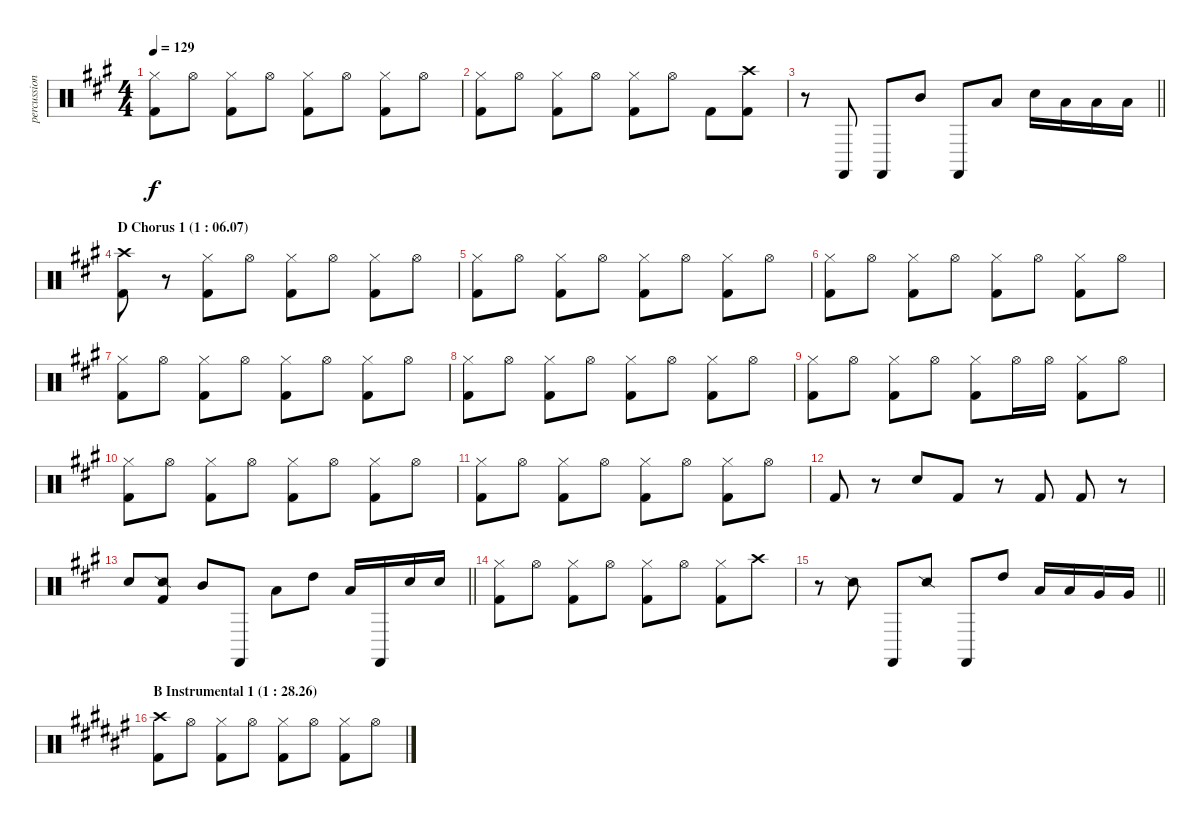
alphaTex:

\track ("percussion" "percussion") {instrument percussion}
\staff {score}
\articulation defaults
\ts (4 4)
\tempo 129
\clef neutral
\ks a
("Hi-Hat (closed)" "Kick (hit) 2").8{dy f} "Hi-Hat (open)".8 ("Hi-Hat (closed)" "Kick (hit) 2").8 "Hi-Hat (open)".8 ("Hi-Hat (closed)" "Kick (hit) 2").8 "Hi-Hat (open)".8 ("Hi-Hat (closed)" "Kick (hit) 2").8 "Hi-Hat (open)".8 |
("Hi-Hat (closed)" "Kick (hit) 2").8 "Hi-Hat (open)".8 ("Hi-Hat (closed)" "Kick (hit) 2").8 "Hi-Hat (open)".8 ("Hi-Hat (closed)" "Kick (hit) 2").8 "Hi-Hat (open)".8 "Kick (hit) 2".8 ("Crash high (hit)" "Kick (hit) 2").8 |
\barLineRight lightlight
r.8 "Castanets (hit)".8 "Castanets (hit)".8 "Mid Tom (hit)".8 "Castanets (hit)".8 "Low Tom (hit)".8 "Snare (hit) 2".16 "Low Tom (hit)".16 "Low Floor Tom (hit)".16 "Low Tom (hit)".16 |
\section ("" "D Chorus 1 (1 : 06.07)")
("Crash high (hit)" "Kick (hit) 2").8 r.8 ("Hi-Hat (closed)" "Kick (hit) 2").8 "Hi-Hat (open)".8 ("Hi-Hat (closed)" "Kick (hit) 2").8 "Hi-Hat (open)".8 ("Hi-Hat (closed)" "Kick (hit) 2").8 "Hi-Hat (open)".8 |
("Hi-Hat (closed)" "Kick (hit) 2").8 "Hi-Hat (open)".8 ("Hi-Hat (closed)" "Kick (hit) 2").8 "Hi-Hat (open)".8 ("Hi-Hat (closed)" "Kick (hit) 2").8 "Hi-Hat (open)".8 ("Hi-Hat (closed)" "Kick (hit) 2").8 "Hi-Hat (open)".8 |
("Hi-Hat (closed)" "Kick (hit) 2").8 "Hi-Hat (open)".8 ("Hi-Hat (closed)" "Kick (hit) 2").8 "Hi-Hat (open)".8 ("Hi-Hat (closed)" "Kick (hit) 2").8 "Hi-Hat (open)".8 ("Hi-Hat (closed)" "Kick (hit) 2").8 "Hi-Hat (open)".8 |
("Hi-Hat (closed)" "Kick (hit) 2").8 "Hi-Hat (open)".8 ("Hi-Hat (closed)" "Kick (hit) 2").8 "Hi-Hat (open)".8 ("Hi-Hat (closed)" "Kick (hit) 2").8 "Hi-Hat (open)".8 ("Hi-Hat (closed)" "Kick (hit) 2").8 "Hi-Hat (open)".8 |
("Hi-Hat (closed)" "Kick (hit) 2").8 "Hi-Hat (open)".8 ("Hi-Hat (closed)" "Kick (hit) 2").8 "Hi-Hat (open)".8 ("Hi-Hat (closed)" "Kick (hit) 2").8 "Hi-Hat (open)".8 ("Hi-Hat (closed)" "Kick (hit) 2").8 "Hi-Hat (open)".8 |
("Hi-Hat (closed)" "Kick (hit) 2").8 "Hi-Hat (open)".8 ("Hi-Hat (closed)" "Kick (hit) 2").8 "Hi-Hat (open)".8 ("Hi-Hat (closed)" "Kick (hit) 2").8 "Hi-Hat (open)".16 "Hi-Hat (open)".16 ("Hi-Hat (closed)" "Kick (hit) 2").8 "Hi-Hat (open)".8 |
("Hi-Hat (closed)" "Kick (hit) 2").8 "Hi-Hat (open)".8 ("Hi-Hat (closed)" "Kick (hit) 2").8 "Hi-Hat (open)".8 ("Hi-Hat (closed)" "Kick (hit) 2").8 "Hi-Hat (open)".8 ("Hi-Hat (closed)" "Kick (hit) 2").8 "Hi-Hat (open)".8 |
("Hi-Hat (closed)" "Kick (hit) 2").8 "Hi-Hat (open)".8 ("Hi-Hat (closed)" "Kick (hit) 2").8 "Hi-Hat (open)".8 ("Hi-Hat (closed)" "Kick (hit) 2").8 "Hi-Hat (open)".8 ("Hi-Hat (closed)" "Kick (hit) 2").8 "Hi-Hat (open)".8 |
"Kick (hit) 2".8 r.8 "Snare (hit) 2".8 "Kick (hit) 2".8 r.8 "Kick (hit) 2".8 "Kick (hit) 2".8 r.8 |
\barLineRight lightlight "Snare (hit) 2".8
("Snare (side stick) 2" "Kick (hit) 2").8 "Mid Tom (hit)".8 "Castanets (hit)".8 "Low Tom (hit)".8 "High Tom (hit)".8 "Low Tom (hit)".16 "Castanets (hit)".16 "Snare (hit) 2".16 "Snare (hit) 2".16 |
("Hi-Hat (closed)" "Kick (hit) 2").8 "Hi-Hat (open)".8 ("Hi-Hat (closed)" "Kick (hit) 2").8 "Hi-Hat (open)".8 ("Hi-Hat (closed)" "Kick (hit) 2").8 "Hi-Hat (open)".8 ("Hi-Hat (closed)" "Kick (hit) 2").8 "Crash high (hit)".8 |
\barLineRight lightlight
r.8 "Snare (side stick) 2".8 "Castanets (hit)".8 "Snare (side stick) 2".8 "Castanets (hit)".8 "High Tom (hit)".8 "Low Tom (hit)".16 "Low Tom (hit)".16 "Very Low Tom (hit)".16 "Very Low Tom (hit)".16 |
\section ("" "B Instrumental 1 (1 : 28.26)")
\ks f#
("Crash high (hit)" "Kick (hit) 2").8 "Hi-Hat (open)".8 ("Hi-Hat (closed)" "Kick (hit) 2").8 "Hi-Hat (open)".8 ("Hi-Hat (closed)" "Kick (hit) 2").8 "Hi-Hat (open)".8 ("Hi-Hat (closed)" "Kick (hit) 2").8 "Hi-Hat (open)".8
